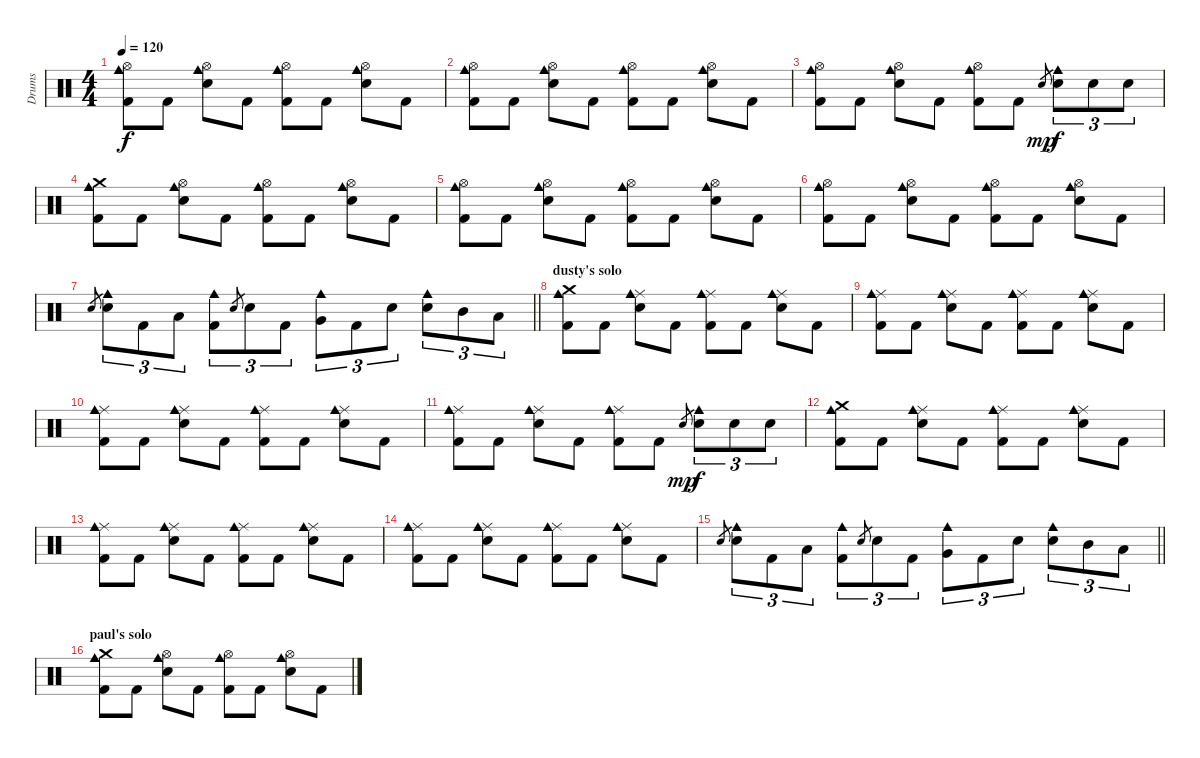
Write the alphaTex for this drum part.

\track ("Drums" "Drums") {instrument percussion}
\staff {score}
\articulation defaults
\ts (4 4)
\tempo 120
\clef neutral
\ks c
("Hi-Hat (open)" "Cowbell medium (hit)" "Kick (hit) 2").8{dy f} "Kick (hit) 2".8 ("Hi-Hat (open)" "Cowbell medium (hit)" "Electric Snare (hit)").8 "Kick (hit) 2".8 ("Hi-Hat (open)" "Cowbell medium (hit)" "Kick (hit) 2").8 "Kick (hit) 2".8 ("Hi-Hat (open)" "Cowbell medium (hit)" "Electric Snare (hit)").8 "Kick (hit) 2".8 |
("Hi-Hat (open)" "Cowbell medium (hit)" "Kick (hit) 2").8 "Kick (hit) 2".8 ("Hi-Hat (open)" "Cowbell medium (hit)" "Electric Snare (hit)").8 "Kick (hit) 2".8 ("Hi-Hat (open)" "Cowbell medium (hit)" "Kick (hit) 2").8 "Kick (hit) 2".8 ("Hi-Hat (open)" "Cowbell medium (hit)" "Electric Snare (hit)").8 "Kick (hit) 2".8 |
("Hi-Hat (open)" "Cowbell medium (hit)" "Kick (hit) 2").8 "Kick (hit) 2".8 ("Hi-Hat (open)" "Cowbell medium (hit)" "Electric Snare (hit)").8 "Kick (hit) 2".8 ("Hi-Hat (open)" "Cowbell medium (hit)" "Kick (hit) 2").8 "Kick (hit) 2".8 "Electric Snare (hit)".8{gr dy mp} ("Cowbell medium (hit)" "Electric Snare (hit)").8{tu (3 2) dy f} "Electric Snare (hit)".8{tu (3 2)} "Electric Snare (hit)".8{tu (3 2)} |
("Crash medium (hit)" "Cowbell medium (hit)" "Kick (hit) 2").8 "Kick (hit) 2".8 ("Hi-Hat (open)" "Cowbell medium (hit)" "Electric Snare (hit)").8 "Kick (hit) 2".8 ("Hi-Hat (open)" "Cowbell medium (hit)" "Kick (hit) 2").8 "Kick (hit) 2".8 ("Hi-Hat (open)" "Cowbell medium (hit)" "Electric Snare (hit)").8 "Kick (hit) 2".8 |
("Hi-Hat (open)" "Cowbell medium (hit)" "Kick (hit) 2").8 "Kick (hit) 2".8 ("Hi-Hat (open)" "Cowbell medium (hit)" "Electric Snare (hit)").8 "Kick (hit) 2".8 ("Hi-Hat (open)" "Cowbell medium (hit)" "Kick (hit) 2").8 "Kick (hit) 2".8 ("Hi-Hat (open)" "Cowbell medium (hit)" "Electric Snare (hit)").8 "Kick (hit) 2".8 |
("Hi-Hat (open)" "Cowbell medium (hit)" "Kick (hit) 2").8 "Kick (hit) 2".8 ("Hi-Hat (open)" "Cowbell medium (hit)" "Electric Snare (hit)").8 "Kick (hit) 2".8 ("Hi-Hat (open)" "Cowbell medium (hit)" "Kick (hit) 2").8 "Kick (hit) 2".8 ("Hi-Hat (open)" "Cowbell medium (hit)" "Electric Snare (hit)").8 "Kick (hit) 2".8 |
\barLineRight lightlight "Electric Snare (hit)".8{gr}
("Cowbell medium (hit)" "Electric Snare (hit)").8{tu (3 2)} "Kick (hit) 2".8{tu (3 2)} "Low Tom (hit)".8{tu (3 2)} ("Cowbell medium (hit)" "Kick (hit) 2").8{tu (3 2)} "Electric Snare (hit)".8{gr} "Electric Snare (hit)".8{tu (3 2)} "Kick (hit) 2".8{tu (3 2)} ("Cowbell medium (hit)" "Very Low Tom (hit)").8{tu (3 2)} "Kick (hit) 2".8{tu (3 2)} "Electric Snare (hit)".8{tu (3 2)} ("Cowbell medium (hit)" "Electric Snare (hit)").8{tu (3 2)} "Mid Tom (hit)".8{tu (3 2)} "Low Tom (hit)".8{tu (3 2)} |
\section ("" "dusty's solo")
("Crash medium (hit)" "Cowbell medium (hit)" "Kick (hit) 2").8 "Kick (hit) 2".8 ("Ride (middle)" "Cowbell medium (hit)" "Electric Snare (hit)").8 "Kick (hit) 2".8 ("Ride (middle)" "Cowbell medium (hit)" "Kick (hit) 2").8 "Kick (hit) 2".8 ("Ride (middle)" "Cowbell medium (hit)" "Electric Snare (hit)").8 "Kick (hit) 2".8 |
("Ride (middle)" "Cowbell medium (hit)" "Kick (hit) 2").8 "Kick (hit) 2".8 ("Ride (middle)" "Cowbell medium (hit)" "Electric Snare (hit)").8 "Kick (hit) 2".8 ("Ride (middle)" "Cowbell medium (hit)" "Kick (hit) 2").8 "Kick (hit) 2".8 ("Ride (middle)" "Cowbell medium (hit)" "Electric Snare (hit)").8 "Kick (hit) 2".8 |
("Ride (middle)" "Cowbell medium (hit)" "Kick (hit) 2").8 "Kick (hit) 2".8 ("Ride (middle)" "Cowbell medium (hit)" "Electric Snare (hit)").8 "Kick (hit) 2".8 ("Ride (middle)" "Cowbell medium (hit)" "Kick (hit) 2").8 "Kick (hit) 2".8 ("Ride (middle)" "Cowbell medium (hit)" "Electric Snare (hit)").8 "Kick (hit) 2".8 |
("Ride (middle)" "Cowbell medium (hit)" "Kick (hit) 2").8 "Kick (hit) 2".8 ("Ride (middle)" "Cowbell medium (hit)" "Electric Snare (hit)").8 "Kick (hit) 2".8 ("Ride (middle)" "Cowbell medium (hit)" "Kick (hit) 2").8 "Kick (hit) 2".8 "Electric Snare (hit)".8{gr dy mp} ("Cowbell medium (hit)" "Electric Snare (hit)").8{tu (3 2) dy f} "Electric Snare (hit)".8{tu (3 2)} "Electric Snare (hit)".8{tu (3 2)} |
("Crash medium (hit)" "Cowbell medium (hit)" "Kick (hit) 2").8 "Kick (hit) 2".8 ("Ride (middle)" "Cowbell medium (hit)" "Electric Snare (hit)").8 "Kick (hit) 2".8 ("Ride (middle)" "Cowbell medium (hit)" "Kick (hit) 2").8 "Kick (hit) 2".8 ("Ride (middle)" "Cowbell medium (hit)" "Electric Snare (hit)").8 "Kick (hit) 2".8 |
("Ride (middle)" "Cowbell medium (hit)" "Kick (hit) 2").8 "Kick (hit) 2".8 ("Ride (middle)" "Cowbell medium (hit)" "Electric Snare (hit)").8 "Kick (hit) 2".8 ("Ride (middle)" "Cowbell medium (hit)" "Kick (hit) 2").8 "Kick (hit) 2".8 ("Ride (middle)" "Cowbell medium (hit)" "Electric Snare (hit)").8 "Kick (hit) 2".8 |
("Ride (middle)" "Cowbell medium (hit)" "Kick (hit) 2").8 "Kick (hit) 2".8 ("Ride (middle)" "Cowbell medium (hit)" "Electric Snare (hit)").8 "Kick (hit) 2".8 ("Ride (middle)" "Cowbell medium (hit)" "Kick (hit) 2").8 "Kick (hit) 2".8 ("Ride (middle)" "Cowbell medium (hit)" "Electric Snare (hit)").8 "Kick (hit) 2".8 |
\barLineRight lightlight "Electric Snare (hit)".8{gr}
("Cowbell medium (hit)" "Electric Snare (hit)").8{tu (3 2)} "Kick (hit) 2".8{tu (3 2)} "Low Tom (hit)".8{tu (3 2)} ("Cowbell medium (hit)" "Kick (hit) 2").8{tu (3 2)} "Electric Snare (hit)".8{gr} "Electric Snare (hit)".8{tu (3 2)} "Kick (hit) 2".8{tu (3 2)} ("Cowbell medium (hit)" "Very Low Tom (hit)").8{tu (3 2)} "Kick (hit) 2".8{tu (3 2)} "Electric Snare (hit)".8{tu (3 2)} ("Cowbell medium (hit)" "Electric Snare (hit)").8{tu (3 2)} "Mid Tom (hit)".8{tu (3 2)} "Low Tom (hit)".8{tu (3 2)} |
\section ("" "paul's solo")
("Crash medium (hit)" "Cowbell medium (hit)" "Kick (hit) 2").8 "Kick (hit) 2".8 ("Hi-Hat (open)" "Cowbell medium (hit)" "Electric Snare (hit)").8 "Kick (hit) 2".8 ("Hi-Hat (open)" "Cowbell medium (hit)" "Kick (hit) 2").8 "Kick (hit) 2".8 ("Hi-Hat (open)" "Cowbell medium (hit)" "Electric Snare (hit)").8 "Kick (hit) 2".8
